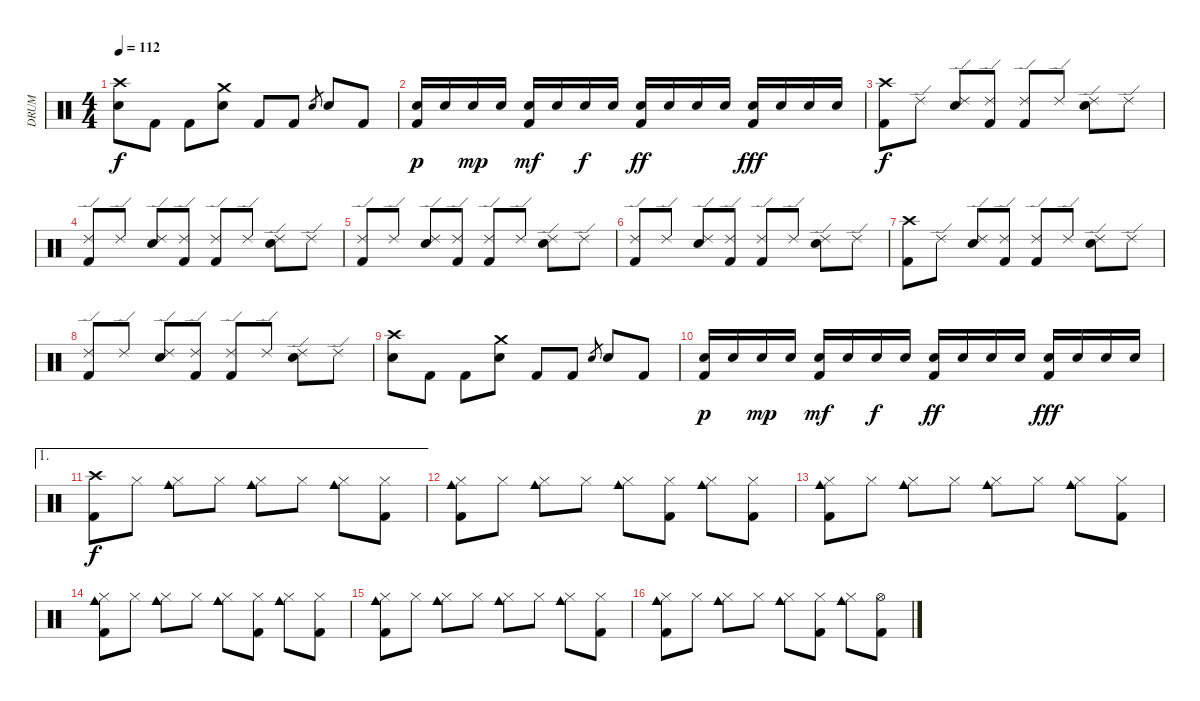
\track ("DRUM" "DRUM") {instrument percussion}
\staff {score}
\articulation defaults
\ts (4 4)
\tempo 112
\clef neutral
\ks c
("Crash high (hit)" "Snare (hit) 2").8{dy f} "Kick (hit) 2".8 "Kick (hit) 2".8 ("Crash medium (hit)" "Snare (hit) 2").8 "Kick (hit) 2".8 "Kick (hit) 2".8 "Snare (hit) 2".8{gr} "Snare (hit) 2".8 "Kick (hit) 2".8 |
("Snare (hit) 2" "Kick (hit) 2").16{dy p} "Snare (hit) 2".16 "Snare (hit) 2".16{dy mp} "Snare (hit) 2".16 ("Snare (hit) 2" "Kick (hit) 2").16{dy mf} "Snare (hit) 2".16 "Snare (hit) 2".16{dy f} "Snare (hit) 2".16 ("Snare (hit) 2" "Kick (hit) 2").16{dy ff} "Snare (hit) 2".16 "Snare (hit) 2".16 "Snare (hit) 2".16 ("Snare (hit) 2" "Kick (hit) 2").16{dy fff} "Snare (hit) 2".16 "Snare (hit) 2".16 "Snare (hit) 2".16 |
("Crash high (hit)" "Kick (hit) 2").8{dy f} "Ride (edge) 2".8 ("Ride (edge) 2" "Snare (hit) 2").8 ("Ride (edge) 2" "Kick (hit) 2").8 ("Ride (edge) 2" "Kick (hit) 2").8 "Ride (edge) 2".8 ("Ride (edge) 2" "Snare (hit) 2").8 "Ride (edge) 2".8 |
("Ride (edge) 2" "Kick (hit) 2").8 "Ride (edge) 2".8 ("Ride (edge) 2" "Snare (hit) 2").8 ("Ride (edge) 2" "Kick (hit) 2").8 ("Ride (edge) 2" "Kick (hit) 2").8 "Ride (edge) 2".8 ("Ride (edge) 2" "Snare (hit) 2").8 "Ride (edge) 2".8 |
("Ride (edge) 2" "Kick (hit) 2").8 "Ride (edge) 2".8 ("Ride (edge) 2" "Snare (hit) 2").8 ("Ride (edge) 2" "Kick (hit) 2").8 ("Ride (edge) 2" "Kick (hit) 2").8 "Ride (edge) 2".8 ("Ride (edge) 2" "Snare (hit) 2").8 "Ride (edge) 2".8 |
("Ride (edge) 2" "Kick (hit) 2").8 "Ride (edge) 2".8 ("Ride (edge) 2" "Snare (hit) 2").8 ("Ride (edge) 2" "Kick (hit) 2").8 ("Ride (edge) 2" "Kick (hit) 2").8 "Ride (edge) 2".8 ("Ride (edge) 2" "Snare (hit) 2").8 "Ride (edge) 2".8 |
("Crash high (hit)" "Kick (hit) 2").8 "Ride (edge) 2".8 ("Ride (edge) 2" "Snare (hit) 2").8 ("Ride (edge) 2" "Kick (hit) 2").8 ("Ride (edge) 2" "Kick (hit) 2").8 "Ride (edge) 2".8 ("Ride (edge) 2" "Snare (hit) 2").8 "Ride (edge) 2".8 |
("Ride (edge) 2" "Kick (hit) 2").8 "Ride (edge) 2".8 ("Ride (edge) 2" "Snare (hit) 2").8 ("Ride (edge) 2" "Kick (hit) 2").8 ("Ride (edge) 2" "Kick (hit) 2").8 "Ride (edge) 2".8 ("Ride (edge) 2" "Snare (hit) 2").8 "Ride (edge) 2".8 |
("Crash high (hit)" "Snare (hit) 2").8 "Kick (hit) 2".8 "Kick (hit) 2".8 ("Crash medium (hit)" "Snare (hit) 2").8 "Kick (hit) 2".8 "Kick (hit) 2".8 "Snare (hit) 2".8{gr} "Snare (hit) 2".8 "Kick (hit) 2".8 |
("Snare (hit) 2" "Kick (hit) 2").16{dy p} "Snare (hit) 2".16 "Snare (hit) 2".16{dy mp} "Snare (hit) 2".16 ("Snare (hit) 2" "Kick (hit) 2").16{dy mf} "Snare (hit) 2".16 "Snare (hit) 2".16{dy f} "Snare (hit) 2".16 ("Snare (hit) 2" "Kick (hit) 2").16{dy ff} "Snare (hit) 2".16 "Snare (hit) 2".16 "Snare (hit) 2".16 ("Snare (hit) 2" "Kick (hit) 2").16{dy fff} "Snare (hit) 2".16 "Snare (hit) 2".16 "Snare (hit) 2".16 |
\ae 1
("Crash high (hit)" "Kick (hit) 2").8{dy f volume 13} "Hi-Hat (closed)".8 ("Cowbell medium (hit)" "Hi-Hat (closed)").8 "Hi-Hat (closed)".8 ("Cowbell medium (hit)" "Hi-Hat (closed)").8 "Hi-Hat (closed)".8 ("Cowbell medium (hit)" "Hi-Hat (closed)").8 ("Hi-Hat (closed)" "Kick (hit) 2").8 |
("Cowbell medium (hit)" "Hi-Hat (closed)" "Kick (hit) 2").8 "Hi-Hat (closed)".8 ("Cowbell medium (hit)" "Hi-Hat (closed)").8 "Hi-Hat (closed)".8 ("Cowbell medium (hit)" "Hi-Hat (closed)").8 ("Hi-Hat (closed)" "Kick (hit) 2").8 ("Cowbell medium (hit)" "Hi-Hat (closed)").8 ("Hi-Hat (closed)" "Kick (hit) 2").8 |
("Cowbell medium (hit)" "Hi-Hat (closed)" "Kick (hit) 2").8 "Hi-Hat (closed)".8 ("Cowbell medium (hit)" "Hi-Hat (closed)").8 "Hi-Hat (closed)".8 ("Cowbell medium (hit)" "Hi-Hat (closed)").8 "Hi-Hat (closed)".8 ("Cowbell medium (hit)" "Hi-Hat (closed)").8 ("Hi-Hat (closed)" "Kick (hit) 2").8 |
("Cowbell medium (hit)" "Hi-Hat (closed)" "Kick (hit) 2").8 "Hi-Hat (closed)".8 ("Cowbell medium (hit)" "Hi-Hat (closed)").8 "Hi-Hat (closed)".8 ("Cowbell medium (hit)" "Hi-Hat (closed)").8 ("Hi-Hat (closed)" "Kick (hit) 2").8 ("Cowbell medium (hit)" "Hi-Hat (closed)").8 ("Hi-Hat (closed)" "Kick (hit) 2").8 |
("Cowbell medium (hit)" "Hi-Hat (closed)" "Kick (hit) 2").8 "Hi-Hat (closed)".8 ("Cowbell medium (hit)" "Hi-Hat (closed)").8 "Hi-Hat (closed)".8 ("Cowbell medium (hit)" "Hi-Hat (closed)").8 "Hi-Hat (closed)".8 ("Cowbell medium (hit)" "Hi-Hat (closed)").8 ("Hi-Hat (closed)" "Kick (hit) 2").8 |
("Cowbell medium (hit)" "Hi-Hat (closed)" "Kick (hit) 2").8 "Hi-Hat (closed)".8 ("Cowbell medium (hit)" "Hi-Hat (closed)").8 "Hi-Hat (closed)".8 ("Cowbell medium (hit)" "Hi-Hat (closed)").8 ("Hi-Hat (closed)" "Kick (hit) 2").8 ("Cowbell medium (hit)" "Hi-Hat (closed)").8 ("Hi-Hat (open)" "Kick (hit) 2").8
